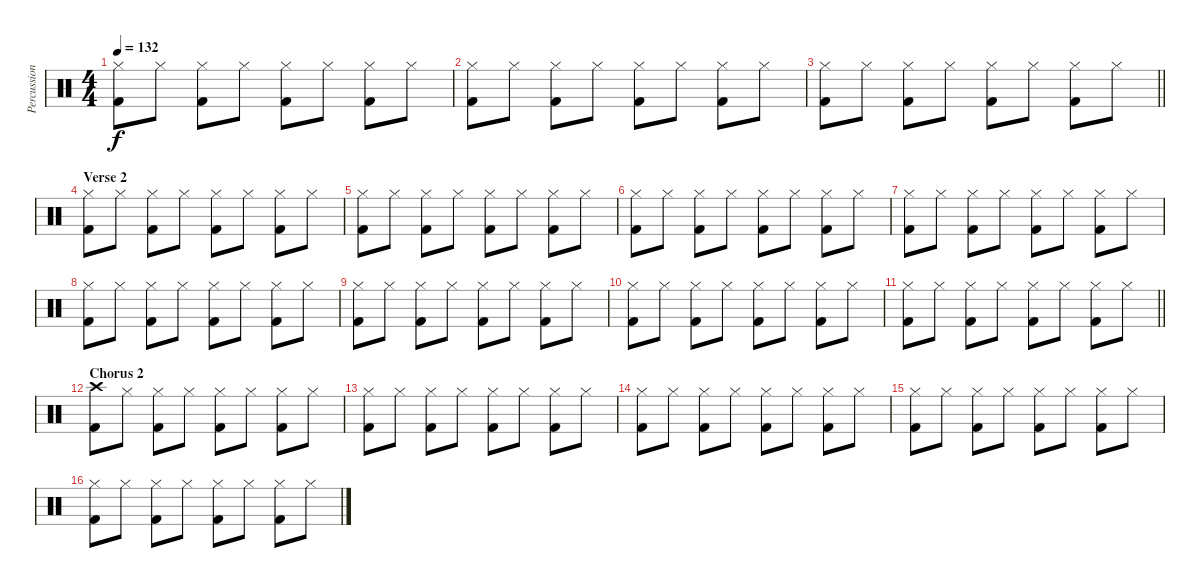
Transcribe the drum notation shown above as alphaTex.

\track ("Percussion" "Percussion") {instrument percussion}
\staff {score}
\articulation defaults
\ts (4 4)
\tempo 132
\clef neutral
\ks c
("Hi-Hat (closed)" "Kick (hit) 2").8{dy f} "Hi-Hat (closed)".8 ("Hi-Hat (closed)" "Kick (hit) 2").8 "Hi-Hat (closed)".8 ("Hi-Hat (closed)" "Kick (hit) 2").8 "Hi-Hat (closed)".8 ("Hi-Hat (closed)" "Kick (hit) 2").8 "Hi-Hat (closed)".8 |
("Hi-Hat (closed)" "Kick (hit) 2").8 "Hi-Hat (closed)".8 ("Hi-Hat (closed)" "Kick (hit) 2").8 "Hi-Hat (closed)".8 ("Hi-Hat (closed)" "Kick (hit) 2").8 "Hi-Hat (closed)".8 ("Hi-Hat (closed)" "Kick (hit) 2").8 "Hi-Hat (closed)".8 |
\barLineRight lightlight
("Hi-Hat (closed)" "Kick (hit) 2").8 "Hi-Hat (closed)".8 ("Hi-Hat (closed)" "Kick (hit) 2").8 "Hi-Hat (closed)".8 ("Hi-Hat (closed)" "Kick (hit) 2").8 "Hi-Hat (closed)".8 ("Hi-Hat (closed)" "Kick (hit) 2").8 "Hi-Hat (closed)".8 |
\section ("" "Verse 2")
("Hi-Hat (closed)" "Kick (hit) 2").8 "Hi-Hat (closed)".8 ("Hi-Hat (closed)" "Kick (hit) 2").8 "Hi-Hat (closed)".8 ("Hi-Hat (closed)" "Kick (hit) 2").8 "Hi-Hat (closed)".8 ("Hi-Hat (closed)" "Kick (hit) 2").8 "Hi-Hat (closed)".8 |
("Hi-Hat (closed)" "Kick (hit) 2").8 "Hi-Hat (closed)".8 ("Hi-Hat (closed)" "Kick (hit) 2").8 "Hi-Hat (closed)".8 ("Hi-Hat (closed)" "Kick (hit) 2").8 "Hi-Hat (closed)".8 ("Hi-Hat (closed)" "Kick (hit) 2").8 "Hi-Hat (closed)".8 |
("Hi-Hat (closed)" "Kick (hit) 2").8 "Hi-Hat (closed)".8 ("Hi-Hat (closed)" "Kick (hit) 2").8 "Hi-Hat (closed)".8 ("Hi-Hat (closed)" "Kick (hit) 2").8 "Hi-Hat (closed)".8 ("Hi-Hat (closed)" "Kick (hit) 2").8 "Hi-Hat (closed)".8 |
("Hi-Hat (closed)" "Kick (hit) 2").8 "Hi-Hat (closed)".8 ("Hi-Hat (closed)" "Kick (hit) 2").8 "Hi-Hat (closed)".8 ("Hi-Hat (closed)" "Kick (hit) 2").8 "Hi-Hat (closed)".8 ("Hi-Hat (closed)" "Kick (hit) 2").8 "Hi-Hat (closed)".8 |
("Hi-Hat (closed)" "Kick (hit) 2").8 "Hi-Hat (closed)".8 ("Hi-Hat (closed)" "Kick (hit) 2").8 "Hi-Hat (closed)".8 ("Hi-Hat (closed)" "Kick (hit) 2").8 "Hi-Hat (closed)".8 ("Hi-Hat (closed)" "Kick (hit) 2").8 "Hi-Hat (closed)".8 |
("Hi-Hat (closed)" "Kick (hit) 2").8 "Hi-Hat (closed)".8 ("Hi-Hat (closed)" "Kick (hit) 2").8 "Hi-Hat (closed)".8 ("Hi-Hat (closed)" "Kick (hit) 2").8 "Hi-Hat (closed)".8 ("Hi-Hat (closed)" "Kick (hit) 2").8 "Hi-Hat (closed)".8 |
("Hi-Hat (closed)" "Kick (hit) 2").8 "Hi-Hat (closed)".8 ("Hi-Hat (closed)" "Kick (hit) 2").8 "Hi-Hat (closed)".8 ("Hi-Hat (closed)" "Kick (hit) 2").8 "Hi-Hat (closed)".8 ("Hi-Hat (closed)" "Kick (hit) 2").8 "Hi-Hat (closed)".8 |
\barLineRight lightlight
("Hi-Hat (closed)" "Kick (hit) 2").8 "Hi-Hat (closed)".8 ("Hi-Hat (closed)" "Kick (hit) 2").8 "Hi-Hat (closed)".8 ("Hi-Hat (closed)" "Kick (hit) 2").8 "Hi-Hat (closed)".8 ("Hi-Hat (closed)" "Kick (hit) 2").8 "Hi-Hat (closed)".8 |
\section ("" "Chorus 2")
("Crash high (hit)" "Kick (hit) 2").8 "Hi-Hat (closed)".8 ("Hi-Hat (closed)" "Kick (hit) 2").8 "Hi-Hat (closed)".8 ("Hi-Hat (closed)" "Kick (hit) 2").8 "Hi-Hat (closed)".8 ("Hi-Hat (closed)" "Kick (hit) 2").8 "Hi-Hat (closed)".8 |
("Hi-Hat (closed)" "Kick (hit) 2").8 "Hi-Hat (closed)".8 ("Hi-Hat (closed)" "Kick (hit) 2").8 "Hi-Hat (closed)".8 ("Hi-Hat (closed)" "Kick (hit) 2").8 "Hi-Hat (closed)".8 ("Hi-Hat (closed)" "Kick (hit) 2").8 "Hi-Hat (closed)".8 |
("Hi-Hat (closed)" "Kick (hit) 2").8 "Hi-Hat (closed)".8 ("Hi-Hat (closed)" "Kick (hit) 2").8 "Hi-Hat (closed)".8 ("Hi-Hat (closed)" "Kick (hit) 2").8 "Hi-Hat (closed)".8 ("Hi-Hat (closed)" "Kick (hit) 2").8 "Hi-Hat (closed)".8 |
("Hi-Hat (closed)" "Kick (hit) 2").8 "Hi-Hat (closed)".8 ("Hi-Hat (closed)" "Kick (hit) 2").8 "Hi-Hat (closed)".8 ("Hi-Hat (closed)" "Kick (hit) 2").8 "Hi-Hat (closed)".8 ("Hi-Hat (closed)" "Kick (hit) 2").8 "Hi-Hat (closed)".8 |
("Hi-Hat (closed)" "Kick (hit) 2").8 "Hi-Hat (closed)".8 ("Hi-Hat (closed)" "Kick (hit) 2").8 "Hi-Hat (closed)".8 ("Hi-Hat (closed)" "Kick (hit) 2").8 "Hi-Hat (closed)".8 ("Hi-Hat (closed)" "Kick (hit) 2").8 "Hi-Hat (closed)".8
